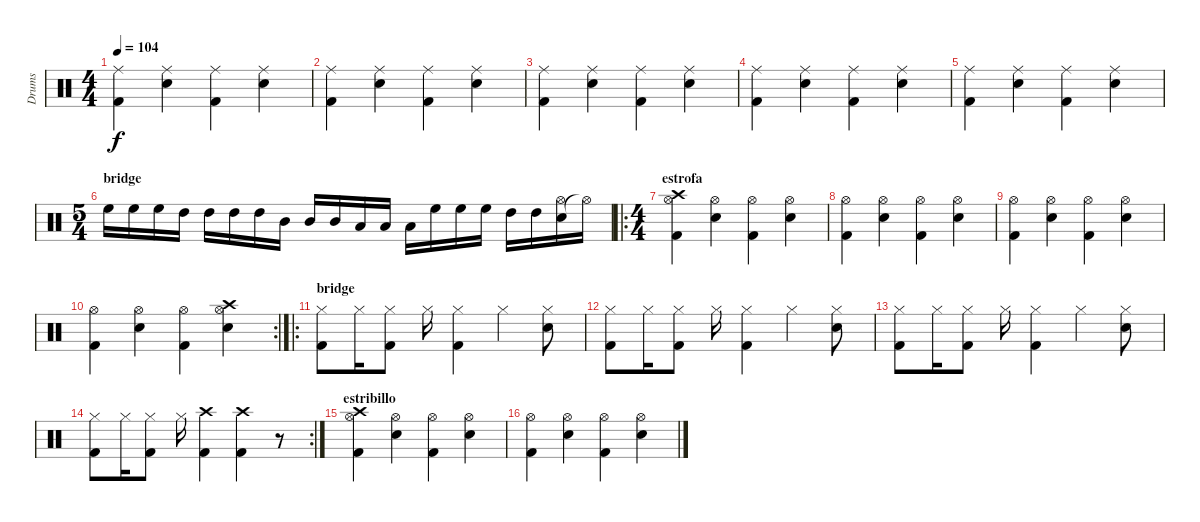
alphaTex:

\track ("Drums" "Drums") {instrument percussion}
\staff {score}
\articulation defaults
\ts (4 4)
\tempo 104
\clef neutral
\ks c
("Kick (hit) 2" "Ride (middle)").4{dy f} ("Snare (hit) 2" "Ride (middle)").4 ("Kick (hit) 2" "Ride (middle)").4 ("Snare (hit) 2" "Ride (middle)").4 |
("Kick (hit) 2" "Ride (middle)").4 ("Snare (hit) 2" "Ride (middle)").4 ("Kick (hit) 2" "Ride (middle)").4 ("Snare (hit) 2" "Ride (middle)").4 |
("Kick (hit) 2" "Ride (middle)").4 ("Snare (hit) 2" "Ride (middle)").4 ("Kick (hit) 2" "Ride (middle)").4 ("Snare (hit) 2" "Ride (middle)").4 |
("Kick (hit) 2" "Ride (middle)").4 ("Snare (hit) 2" "Ride (middle)").4 ("Kick (hit) 2" "Ride (middle)").4 ("Snare (hit) 2" "Ride (middle)").4 |
("Kick (hit) 2" "Ride (middle)").4 ("Snare (hit) 2" "Ride (middle)").4 ("Kick (hit) 2" "Ride (middle)").4 ("Snare (hit) 2" "Ride (middle)").4 |
\ts (5 4)
\section ("" "bridge")
"High Floor Tom (hit)".16 "High Floor Tom (hit)".16 "High Floor Tom (hit)".16 "High Tom (hit)".16 "High Tom (hit)".16 "High Tom (hit)".16 "High Tom (hit)".16 "Mid Tom (hit)".16 "Mid Tom (hit)".16 "Mid Tom (hit)".16 "Low Tom (hit)".16 "Low Tom (hit)".16 "Low Tom (hit)".16 "High Floor Tom (hit)".16 "High Floor Tom (hit)".16 "High Floor Tom (hit)".16 "High Tom (hit)".16 "High Tom (hit)".16 ("Snare (hit) 2" "Hi-Hat (open)").16 "Hi-Hat (open)"{t}.16 |
\ro
\ts (4 4)
\section ("" "estrofa")
("Kick (hit) 2" "Hi-Hat (open)" "Crash high (hit)").4 ("Snare (hit) 2" "Hi-Hat (open)").4 ("Kick (hit) 2" "Hi-Hat (open)").4 ("Snare (hit) 2" "Hi-Hat (open)").4 |
("Kick (hit) 2" "Hi-Hat (open)").4 ("Snare (hit) 2" "Hi-Hat (open)").4 ("Kick (hit) 2" "Hi-Hat (open)").4 ("Snare (hit) 2" "Hi-Hat (open)").4 |
("Kick (hit) 2" "Hi-Hat (open)").4 ("Snare (hit) 2" "Hi-Hat (open)").4 ("Kick (hit) 2" "Hi-Hat (open)").4 ("Snare (hit) 2" "Hi-Hat (open)").4 |
\rc 2
("Kick (hit) 2" "Hi-Hat (open)").4 ("Snare (hit) 2" "Hi-Hat (open)").4 ("Kick (hit) 2" "Hi-Hat (open)").4 ("Snare (hit) 2" "Hi-Hat (open)" "Crash high (hit)").4 |
\ro
\section ("" "bridge")
("Kick (hit) 2" "Hi-Hat (closed)").8 "Hi-Hat (closed)".16 ("Kick (hit) 2" "Hi-Hat (closed)").8 "Hi-Hat (closed)".16 ("Kick (hit) 2" "Hi-Hat (closed)").4 "Hi-Hat (closed)".4 ("Snare (hit) 2" "Hi-Hat (closed)").8 |
("Kick (hit) 2" "Hi-Hat (closed)").8 "Hi-Hat (closed)".16 ("Kick (hit) 2" "Hi-Hat (closed)").8 "Hi-Hat (closed)".16 ("Kick (hit) 2" "Hi-Hat (closed)").4 "Hi-Hat (closed)".4 ("Snare (hit) 2" "Hi-Hat (closed)").8 |
("Kick (hit) 2" "Hi-Hat (closed)").8 "Hi-Hat (closed)".16 ("Kick (hit) 2" "Hi-Hat (closed)").8 "Hi-Hat (closed)".16 ("Kick (hit) 2" "Hi-Hat (closed)").4 "Hi-Hat (closed)".4 ("Snare (hit) 2" "Hi-Hat (closed)").8 |
\rc 2
("Kick (hit) 2" "Hi-Hat (closed)").8 "Hi-Hat (closed)".16 ("Kick (hit) 2" "Hi-Hat (closed)").8 "Hi-Hat (closed)".16 ("Kick (hit) 2" "Crash high (hit)").4 ("Kick (hit) 2" "Crash high (hit)").4 r.8 |
\section ("" "estribillo")
("Kick (hit) 2" "Hi-Hat (open)" "Crash high (hit)").4 ("Snare (hit) 2" "Hi-Hat (open)").4 ("Kick (hit) 2" "Hi-Hat (open)").4 ("Snare (hit) 2" "Hi-Hat (open)").4 |
("Kick (hit) 2" "Hi-Hat (open)").4 ("Snare (hit) 2" "Hi-Hat (open)").4 ("Kick (hit) 2" "Hi-Hat (open)").4 ("Snare (hit) 2" "Hi-Hat (open)").4
